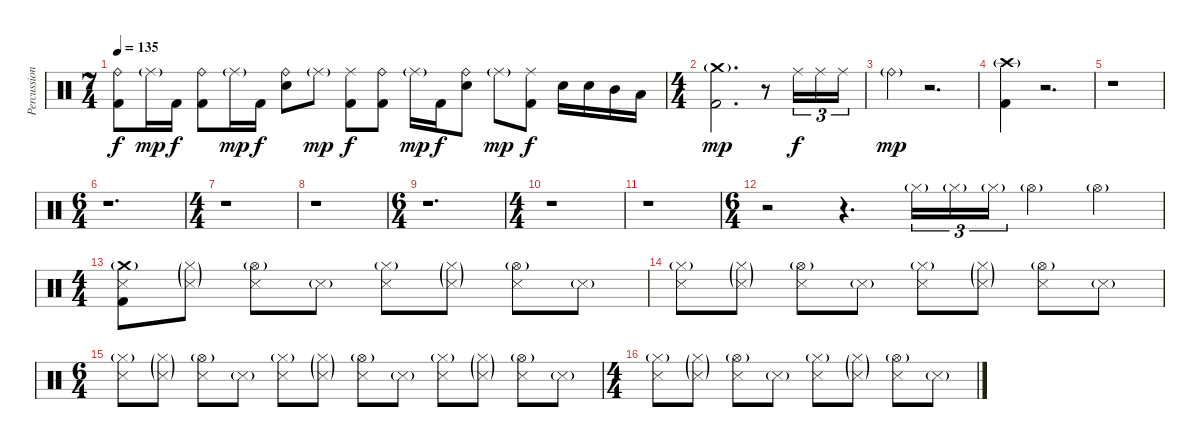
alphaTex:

\track ("Percussion" "Percussion") {instrument percussion}
\staff {score}
\articulation defaults
\ts (7 4)
\tempo 135
\clef neutral
\ks c
("Ride (bell)" "Kick (hit) 2").8{dy f} "Ride (middle)"{g}.16{dy mp} "Kick (hit) 2".16{dy f} ("Ride (bell)" "Kick (hit) 2").8 "Ride (middle)"{g}.16{dy mp} "Kick (hit) 2".16{dy f} ("Ride (bell)" "Electric Snare (hit)").8 "Ride (middle)"{g}.8{dy mp} ("Ride (middle)" "Kick (hit) 2").8{dy f} ("Ride (bell)" "Kick (hit) 2").8 "Ride (middle)"{g}.16{dy mp} "Kick (hit) 2".16{dy f} ("Ride (bell)" "Electric Snare (hit)").8 "Ride (middle)"{g}.8{dy mp} ("Ride (middle)" "Kick (hit) 2").8{dy f} "Electric Snare (hit)".16 "Electric Snare (hit)".16 "Mid Tom (hit)".16 "Low Tom (hit)".16 |
\ts (4 4)
("Crash medium (hit)"{g} "Kick (hit) 2").2{d dy mp} r.8 "Ride (middle)".16{tu (3 2) dy f} "Ride (middle)".16{tu (3 2)} "Ride (middle)".16{tu (3 2)} |
"Ride (bell)"{g}.4{dy mp} r.2{d} |
("Crash high (hit)"{g} "Kick (hit) 2").4 r.2{d} |
r.1 |
\ts (6 4)
r.1{d} |
\ts (4 4)
r.1 |
r.1 |
\ts (6 4)
r.1{d} |
\ts (4 4)
r.1 |
r.1 |
\ts (6 4)
r.2 r.4{d} "Hi-Hat (closed)"{g}.16{tu (3 2)} "Hi-Hat (closed)"{g}.16{tu (3 2)} "Hi-Hat (closed)"{g}.16{tu (3 2)} "Hi-Hat (open)"{g}.4 "Hi-Hat (open)"{g}.4 |
\ts (4 4)
("Crash medium (hit)"{g} "Snare (side stick) 3" "Kick (hit) 2").8 ("Hi-Hat (closed)"{g} "Snare (side stick) 3"{g}).8 ("Hi-Hat (open)"{g} "Snare (side stick) 3").8 "Snare (side stick) 3"{g}.8 ("Hi-Hat (closed)"{g} "Snare (side stick) 3").8 ("Hi-Hat (closed)"{g} "Snare (side stick) 3"{g}).8 ("Hi-Hat (open)"{g} "Snare (side stick) 3").8 "Snare (side stick) 3"{g}.8 |
("Hi-Hat (closed)"{g} "Snare (side stick) 3").8 ("Hi-Hat (closed)"{g} "Snare (side stick) 3"{g}).8 ("Hi-Hat (open)"{g} "Snare (side stick) 3").8 "Snare (side stick) 3"{g}.8 ("Hi-Hat (closed)"{g} "Snare (side stick) 3").8 ("Hi-Hat (closed)"{g} "Snare (side stick) 3"{g}).8 ("Hi-Hat (open)"{g} "Snare (side stick) 3").8 "Snare (side stick) 3"{g}.8 |
\ts (6 4)
("Hi-Hat (closed)"{g} "Snare (side stick) 3").8 ("Hi-Hat (closed)"{g} "Snare (side stick) 3"{g}).8 ("Hi-Hat (open)"{g} "Snare (side stick) 3").8 "Snare (side stick) 3"{g}.8 ("Hi-Hat (closed)"{g} "Snare (side stick) 3").8 ("Hi-Hat (closed)"{g} "Snare (side stick) 3"{g}).8 ("Hi-Hat (open)"{g} "Snare (side stick) 3").8 "Snare (side stick) 3"{g}.8 ("Hi-Hat (closed)"{g} "Snare (side stick) 3").8 ("Hi-Hat (closed)"{g} "Snare (side stick) 3"{g}).8 ("Hi-Hat (open)"{g} "Snare (side stick) 3").8 "Snare (side stick) 3"{g}.8 |
\ts (4 4)
("Hi-Hat (closed)"{g} "Snare (side stick) 3").8 ("Hi-Hat (closed)"{g} "Snare (side stick) 3"{g}).8 ("Hi-Hat (open)"{g} "Snare (side stick) 3").8 "Snare (side stick) 3"{g}.8 ("Hi-Hat (closed)"{g} "Snare (side stick) 3").8 ("Hi-Hat (closed)"{g} "Snare (side stick) 3"{g}).8 ("Hi-Hat (open)"{g} "Snare (side stick) 3").8 "Snare (side stick) 3"{g}.8
